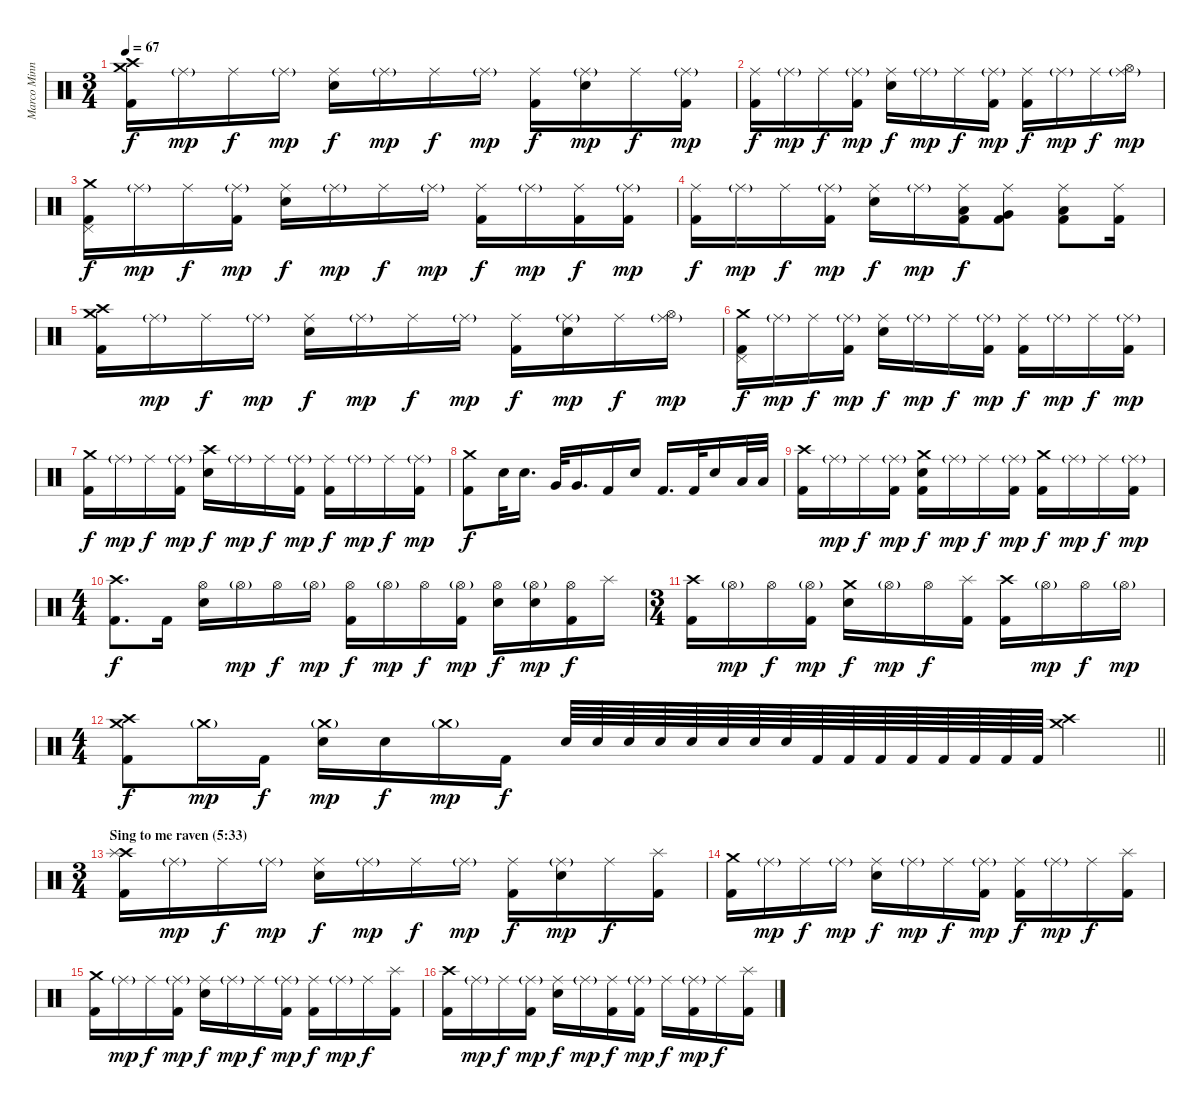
\track ("Marco Minnemann" "Marco Minn") {instrument percussion}
\staff {score}
\articulation defaults
\ts (3 4)
\tempo 67
\clef neutral
\ks c
("Crash high (hit)" "Crash medium (hit)" "Kick (hit) 2").16{dy f} "Ride (middle)"{g}.16{dy mp} "Ride (middle)".16{dy f} "Ride (middle)"{g}.16{dy mp} ("Ride (middle)" "Electric Snare (hit)").16{dy f} "Ride (middle)"{g}.16{dy mp} "Ride (middle)".16{dy f} "Ride (middle)"{g}.16{dy mp} ("Ride (middle)" "Kick (hit) 2").16{dy f} ("Ride (middle)"{g} "Electric Snare (hit)").16{dy mp} "Ride (middle)".16{dy f} ("Ride (middle)"{g} "Kick (hit) 2").16{dy mp} |
("Ride (middle)" "Kick (hit) 2").16{dy f} "Ride (middle)"{g}.16{dy mp} "Ride (middle)".16{dy f} ("Ride (middle)"{g} "Kick (hit) 2").16{dy mp} ("Ride (middle)" "Electric Snare (hit)").16{dy f} "Ride (middle)"{g}.16{dy mp} "Ride (middle)".16{dy f} ("Ride (middle)"{g} "Kick (hit) 2").16{dy mp} ("Ride (middle)" "Kick (hit) 2").16{dy f} "Ride (middle)"{g}.16{dy mp} "Ride (middle)".16{dy f} ("Ride (middle)"{g} "Hi-Hat (open)").16{dy mp} |
("Crash medium (hit)" "Pedal Hi-Hat (hit)" "Kick (hit) 2").16{dy f} "Ride (middle)"{g}.16{dy mp} "Ride (middle)".16{dy f} ("Ride (middle)"{g} "Kick (hit) 2").16{dy mp} ("Ride (middle)" "Electric Snare (hit)").16{dy f} "Ride (middle)"{g}.16{dy mp} "Ride (middle)".16{dy f} "Ride (middle)"{g}.16{dy mp} ("Ride (middle)" "Kick (hit) 2").16{dy f} "Ride (middle)"{g}.16{dy mp} ("Ride (middle)" "Kick (hit) 2").16{dy f} ("Ride (middle)"{g} "Kick (hit) 2").16{dy mp} |
("Ride (middle)" "Kick (hit) 2").16{dy f} "Ride (middle)"{g}.16{dy mp} "Ride (middle)".16{dy f} ("Ride (middle)"{g} "Kick (hit) 2").16{dy mp} ("Ride (middle)" "Electric Snare (hit)").16{dy f} "Ride (middle)"{g}.16{dy mp} ("Ride (middle)" "Low Tom (hit)" "Kick (hit) 2").16{dy f} ("Ride (middle)" "Very Low Tom (hit)" "Kick (hit) 2").8 ("Ride (middle)" "Low Floor Tom (hit)" "Kick (hit) 2").8 ("Ride (middle)" "Kick (hit) 2").16 |
("Crash high (hit)" "Crash medium (hit)" "Kick (hit) 2").16 "Ride (middle)"{g}.16{dy mp} "Ride (middle)".16{dy f} "Ride (middle)"{g}.16{dy mp} ("Ride (middle)" "Electric Snare (hit)").16{dy f} "Ride (middle)"{g}.16{dy mp} "Ride (middle)".16{dy f} "Ride (middle)"{g}.16{dy mp} ("Ride (middle)" "Kick (hit) 2").16{dy f} ("Ride (middle)"{g} "Electric Snare (hit)").16{dy mp} "Ride (middle)".16{dy f} ("Ride (middle)"{g} "Hi-Hat (open)").16{dy mp} |
("Crash medium (hit)" "Pedal Hi-Hat (hit)" "Kick (hit) 2").16{dy f} "Ride (middle)"{g}.16{dy mp} "Ride (middle)".16{dy f} ("Ride (middle)"{g} "Kick (hit) 2").16{dy mp} ("Ride (middle)" "Electric Snare (hit)").16{dy f} "Ride (middle)"{g}.16{dy mp} "Ride (middle)".16{dy f} ("Ride (middle)"{g} "Kick (hit) 2").16{dy mp} ("Ride (middle)" "Kick (hit) 2").16{dy f} "Ride (middle)"{g}.16{dy mp} "Ride (middle)".16{dy f} ("Ride (middle)"{g} "Kick (hit) 2").16{dy mp} |
("Crash medium (hit)" "Kick (hit) 2").16{dy f} "Ride (middle)"{g}.16{dy mp} "Ride (middle)".16{dy f} ("Ride (middle)"{g} "Kick (hit) 2").16{dy mp} ("Crash high (hit)" "Electric Snare (hit)").16{dy f} "Ride (middle)"{g}.16{dy mp} "Ride (middle)".16{dy f} ("Ride (middle)"{g} "Kick (hit) 2").16{dy mp} ("Ride (middle)" "Kick (hit) 2").16{dy f} "Ride (middle)"{g}.16{dy mp} "Ride (middle)".16{dy f} ("Ride (middle)"{g} "Kick (hit) 2").16{dy mp} |
("Crash medium (hit)" "Kick (hit) 2").8{dy f} "Electric Snare (hit)".32 "Electric Snare (hit)".16{d} "Very Low Tom (hit)".32 "Very Low Tom (hit)".16{d} "Kick (hit) 2".16 "Electric Snare (hit)".16 "Kick (hit) 2".16{d} "Kick (hit) 2".32 "Electric Snare (hit)".16 "Low Floor Tom (hit)".32 "Low Floor Tom (hit)".32 |
("Crash high (hit)" "Kick (hit) 2").16 "Ride (middle)"{g}.16{dy mp} "Ride (middle)".16{dy f} ("Ride (middle)"{g} "Kick (hit) 2").16{dy mp} ("Crash medium (hit)" "Electric Snare (hit)" "Kick (hit) 2").16{dy f} "Ride (middle)"{g}.16{dy mp} "Ride (middle)".16{dy f} ("Ride (middle)"{g} "Kick (hit) 2").16{dy mp} ("Crash medium (hit)" "Kick (hit) 2").16{dy f} "Ride (middle)"{g}.16{dy mp} "Ride (middle)".16{dy f} ("Ride (middle)"{g} "Kick (hit) 2").16{dy mp} |
\ts (4 4)
("Crash high (hit)" "Kick (hit) 2").8{d dy f} "Kick (hit) 2".16 ("Hi-Hat (open)" "Electric Snare (hit)").16 "Hi-Hat (open)"{g}.16{dy mp} "Hi-Hat (open)".16{dy f} "Hi-Hat (open)"{g}.16{dy mp} ("Hi-Hat (open)" "Kick (hit) 2").16{dy f} "Hi-Hat (open)"{g}.16{dy mp} "Hi-Hat (open)".16{dy f} ("Hi-Hat (open)"{g} "Kick (hit) 2").16{dy mp} ("Hi-Hat (open)" "Electric Snare (hit)").16{dy f} ("Hi-Hat (open)"{g} "Electric Snare (hit)").16{dy mp} ("Hi-Hat (open)" "Kick (hit) 2").16{dy f} "Splash (hit)".16 |
\ts (3 4)
("Crash high (hit)" "Kick (hit) 2").16 "Hi-Hat (open)"{g}.16{dy mp} "Hi-Hat (open)".16{dy f} ("Hi-Hat (open)"{g} "Kick (hit) 2").16{dy mp} ("Crash medium (hit)" "Electric Snare (hit)").16{dy f} "Hi-Hat (open)"{g}.16{dy mp} "Hi-Hat (open)".16{dy f} ("Splash (hit)" "Kick (hit) 2").16 ("Crash high (hit)" "Kick (hit) 2").16 "Hi-Hat (open)"{g}.16{dy mp} "Hi-Hat (open)".16{dy f} "Hi-Hat (open)"{g}.16{dy mp} |
\ts (4 4)
\barLineRight lightlight
("Crash high (hit)" "Crash medium (hit)" "Kick (hit) 2").8{dy f} "Crash medium (hit)"{g}.16{dy mp} "Kick (hit) 2".16{dy f} ("Crash medium (hit)"{g} "Electric Snare (hit)").16{dy mp} "Electric Snare (hit)".16{dy f} "Crash medium (hit)"{g}.16{dy mp} "Kick (hit) 2".16{dy f} "Electric Snare (hit)".64 "Electric Snare (hit)".64 "Electric Snare (hit)".64 "Electric Snare (hit)".64 "Electric Snare (hit)".64 "Electric Snare (hit)".64 "Electric Snare (hit)".64 "Electric Snare (hit)".64 "Kick (hit) 2".64 "Kick (hit) 2".64 "Kick (hit) 2".64 "Kick (hit) 2".64 "Kick (hit) 2".64 "Kick (hit) 2".64 "Kick (hit) 2".64 "Kick (hit) 2".64 ("Crash high (hit)" "Crash medium (hit)").4 |
\ts (3 4)
\section ("" "Sing to me raven (5:33)")
("Crash high (hit)" "Splash (hit)" "Kick (hit) 2").16 "Ride (middle)"{g}.16{dy mp} "Ride (middle)".16{dy f} "Ride (middle)"{g}.16{dy mp} ("Ride (middle)" "Electric Snare (hit)").16{dy f} "Ride (middle)"{g}.16{dy mp} "Ride (middle)".16{dy f} "Ride (middle)"{g}.16{dy mp} ("Ride (middle)" "Kick (hit) 2").16{dy f} ("Ride (middle)"{g} "Electric Snare (hit)").16{dy mp} "Ride (middle)".16{dy f} ("Splash (hit)" "Kick (hit) 2").16 |
("Crash medium (hit)" "Kick (hit) 2").16 "Ride (middle)"{g}.16{dy mp} "Ride (middle)".16{dy f} "Ride (middle)"{g}.16{dy mp} ("Ride (middle)" "Electric Snare (hit)").16{dy f} "Ride (middle)"{g}.16{dy mp} "Ride (middle)".16{dy f} ("Ride (middle)"{g} "Kick (hit) 2").16{dy mp} ("Ride (middle)" "Kick (hit) 2").16{dy f} "Ride (middle)"{g}.16{dy mp} "Ride (middle)".16{dy f} ("Splash (hit)" "Kick (hit) 2").16 |
("Crash medium (hit)" "Kick (hit) 2").16 "Ride (middle)"{g}.16{dy mp} "Ride (middle)".16{dy f} ("Ride (middle)"{g} "Kick (hit) 2").16{dy mp} ("Ride (middle)" "Electric Snare (hit)").16{dy f} "Ride (middle)"{g}.16{dy mp} "Ride (middle)".16{dy f} ("Ride (middle)"{g} "Kick (hit) 2").16{dy mp} ("Ride (middle)" "Kick (hit) 2").16{dy f} "Ride (middle)"{g}.16{dy mp} "Ride (middle)".16{dy f} ("Splash (hit)" "Kick (hit) 2").16 |
("Crash high (hit)" "Kick (hit) 2").16 "Ride (middle)"{g}.16{dy mp} "Ride (middle)".16{dy f} ("Ride (middle)"{g} "Kick (hit) 2").16{dy mp} ("Ride (middle)" "Electric Snare (hit)").16{dy f} "Ride (middle)"{g}.16{dy mp} ("Ride (middle)" "Kick (hit) 2").16{dy f} ("Ride (middle)"{g} "Kick (hit) 2").16{dy mp} "Ride (middle)".16{dy f} ("Ride (middle)"{g} "Kick (hit) 2").16{dy mp} "Ride (middle)".16{dy f} ("Splash (hit)" "Kick (hit) 2").16
